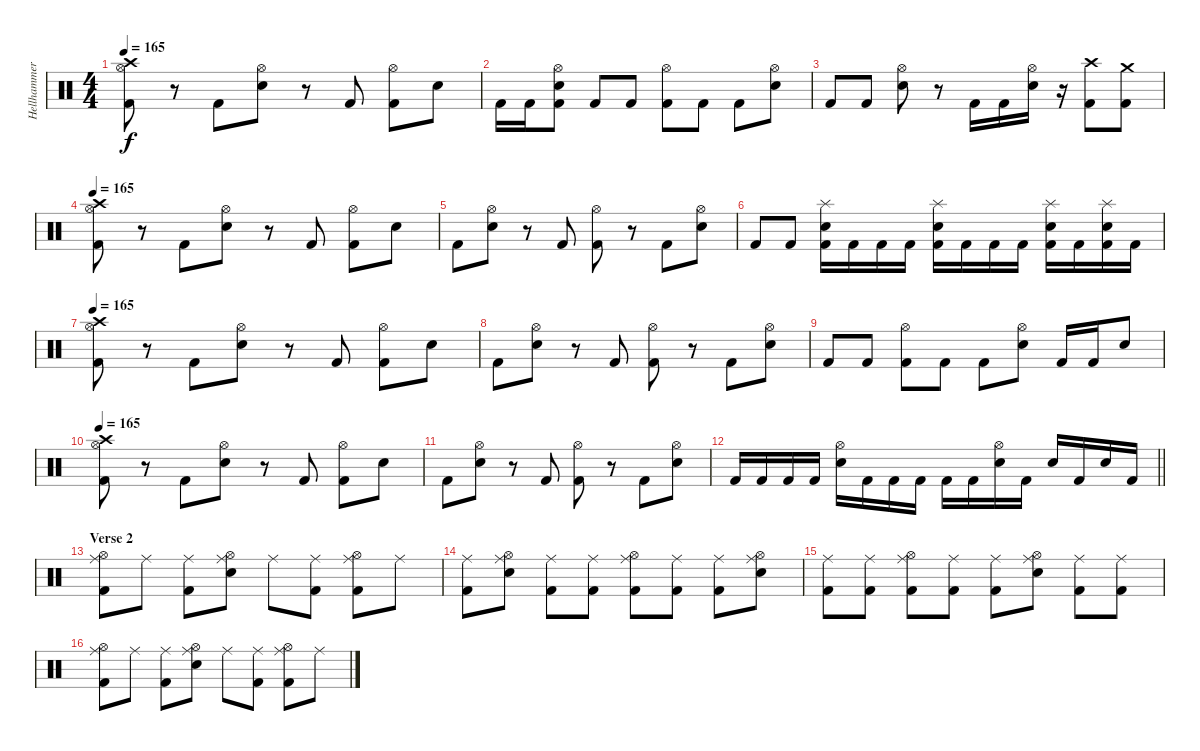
\track ("Hellhammer" "Hellhammer") {instrument percussion}
\staff {score}
\articulation defaults
\ts (4 4)
\tempo 180
\tempo 165
\clef neutral
\ks c
("Crash high (hit)" "Hi-Hat (open)" "Kick (hit) 2").8{dy f} r.8 "Kick (hit) 2".8 ("Hi-Hat (open)" "Snare (hit) 2").8 r.8 "Kick (hit) 2".8 ("Hi-Hat (open)" "Kick (hit) 2").8 "Snare (hit)".8 |
"Kick (hit) 2".16 "Kick (hit) 2".16 ("Hi-Hat (open)" "Snare (hit) 2" "Kick (hit) 2").8 "Kick (hit) 2".8 "Kick (hit) 2".8 ("Hi-Hat (open)" "Kick (hit) 2").8 "Kick (hit) 2".8 "Kick (hit) 2".8 ("Hi-Hat (open)" "Snare (hit) 2").8 |
"Kick (hit) 2".8 "Kick (hit) 2".8 ("Hi-Hat (open)" "Snare (hit) 2").8 r.8 "Kick (hit) 2".16 "Kick (hit) 2".16 ("Hi-Hat (open)" "Snare (hit) 2").16 r.16 ("Crash high (hit)" "Kick (hit) 2").8 ("Crash medium (hit)" "Kick (hit) 2").8 |
\tempo 165
("Crash high (hit)" "Hi-Hat (open)" "Kick (hit) 2").8 r.8 "Kick (hit) 2".8 ("Hi-Hat (open)" "Snare (hit) 2").8 r.8 "Kick (hit) 2".8 ("Hi-Hat (open)" "Kick (hit) 2").8 "Snare (hit)".8 |
"Kick (hit) 2".8 ("Hi-Hat (open)" "Snare (hit) 2").8 r.8 "Kick (hit) 2".8 ("Hi-Hat (open)" "Kick (hit) 2").8 r.8 "Kick (hit) 2".8 ("Hi-Hat (open)" "Snare (hit) 2").8 |
"Kick (hit) 2".8 "Kick (hit) 2".8 ("Snare (hit) 2" "Splash (hit)" "Kick (hit) 2").16 "Kick (hit) 2".16 "Kick (hit) 2".16 "Kick (hit) 2".16 ("Snare (hit) 2" "Splash (hit)" "Kick (hit) 2").16 "Kick (hit) 2".16 "Kick (hit) 2".16 "Kick (hit) 2".16 ("Snare (hit) 2" "Splash (hit)" "Kick (hit) 2").16 "Kick (hit) 2".16 ("Snare (hit) 2" "Splash (hit)" "Kick (hit) 2").16 "Kick (hit) 2".16 |
\tempo 165
("Crash high (hit)" "Hi-Hat (open)" "Kick (hit) 2").8 r.8 "Kick (hit) 2".8 ("Hi-Hat (open)" "Snare (hit) 2").8 r.8 "Kick (hit) 2".8 ("Hi-Hat (open)" "Kick (hit) 2").8 "Snare (hit)".8 |
"Kick (hit) 2".8 ("Hi-Hat (open)" "Snare (hit) 2").8 r.8 "Kick (hit) 2".8 ("Hi-Hat (open)" "Kick (hit) 2").8 r.8 "Kick (hit) 2".8 ("Hi-Hat (open)" "Snare (hit) 2").8 |
"Kick (hit) 2".8 "Kick (hit) 2".8 ("Hi-Hat (open)" "Kick (hit) 2").8 "Kick (hit) 2".8 "Kick (hit) 2".8 ("Hi-Hat (open)" "Snare (hit) 2").8 "Kick (hit) 2".16 "Kick (hit) 2".16 "Snare (hit) 2".8 |
\tempo 165
("Crash high (hit)" "Hi-Hat (open)" "Kick (hit) 2").8 r.8 "Kick (hit) 2".8 ("Hi-Hat (open)" "Snare (hit) 2").8 r.8 "Kick (hit) 2".8 ("Hi-Hat (open)" "Kick (hit) 2").8 "Snare (hit)".8 |
"Kick (hit) 2".8 ("Hi-Hat (open)" "Snare (hit) 2").8 r.8 "Kick (hit) 2".8 ("Hi-Hat (open)" "Kick (hit) 2").8 r.8 "Kick (hit) 2".8 ("Hi-Hat (open)" "Snare (hit) 2").8 |
\barLineRight lightlight "Kick (hit) 2".16 "Kick (hit) 2".16 "Kick (hit) 2".16 "Kick (hit) 2".16
("Hi-Hat (open)" "Snare (hit) 2").16 "Kick (hit) 2".16 "Kick (hit) 2".16 "Kick (hit) 2".16 "Kick (hit) 2".16 "Kick (hit) 2".16 ("Hi-Hat (open)" "Snare (hit) 2").16 "Kick (hit) 2".16 "Snare (hit) 2".16 "Kick (hit) 2".16 "Snare (hit) 2".16 "Kick (hit) 2".16 |
\section ("" "Verse 2")
("Ride (middle)" "Hi-Hat (open)" "Kick (hit) 2").8 "Ride (middle)".8 ("Ride (middle)" "Kick (hit) 2").8 ("Ride (middle)" "Hi-Hat (open)" "Snare (hit) 2").8 "Ride (middle)".8 ("Ride (middle)" "Kick (hit) 2").8 ("Ride (middle)" "Hi-Hat (open)" "Kick (hit) 2").8 "Ride (middle)".8 |
("Ride (middle)" "Kick (hit) 2").8 ("Ride (middle)" "Hi-Hat (open)" "Snare (hit) 2").8 ("Ride (middle)" "Kick (hit) 2").8 ("Ride (middle)" "Kick (hit) 2").8 ("Ride (middle)" "Hi-Hat (open)" "Kick (hit) 2").8 ("Ride (middle)" "Kick (hit) 2").8 ("Ride (middle)" "Kick (hit) 2").8 ("Ride (middle)" "Hi-Hat (open)" "Snare (hit) 2").8 |
("Ride (middle)" "Kick (hit) 2").8 ("Ride (middle)" "Kick (hit) 2").8 ("Ride (middle)" "Hi-Hat (open)" "Kick (hit) 2").8 ("Ride (middle)" "Kick (hit) 2").8 ("Ride (middle)" "Kick (hit) 2").8 ("Ride (middle)" "Hi-Hat (open)" "Snare (hit) 2").8 ("Ride (middle)" "Kick (hit) 2").8 ("Ride (middle)" "Kick (hit) 2").8 |
("Ride (middle)" "Hi-Hat (open)" "Kick (hit) 2").8 "Ride (middle)".8 ("Ride (middle)" "Kick (hit) 2").8 ("Ride (middle)" "Hi-Hat (open)" "Snare (hit) 2").8 "Ride (middle)".8 ("Ride (middle)" "Kick (hit) 2").8 ("Ride (middle)" "Hi-Hat (open)" "Kick (hit) 2").8 "Ride (middle)".8
